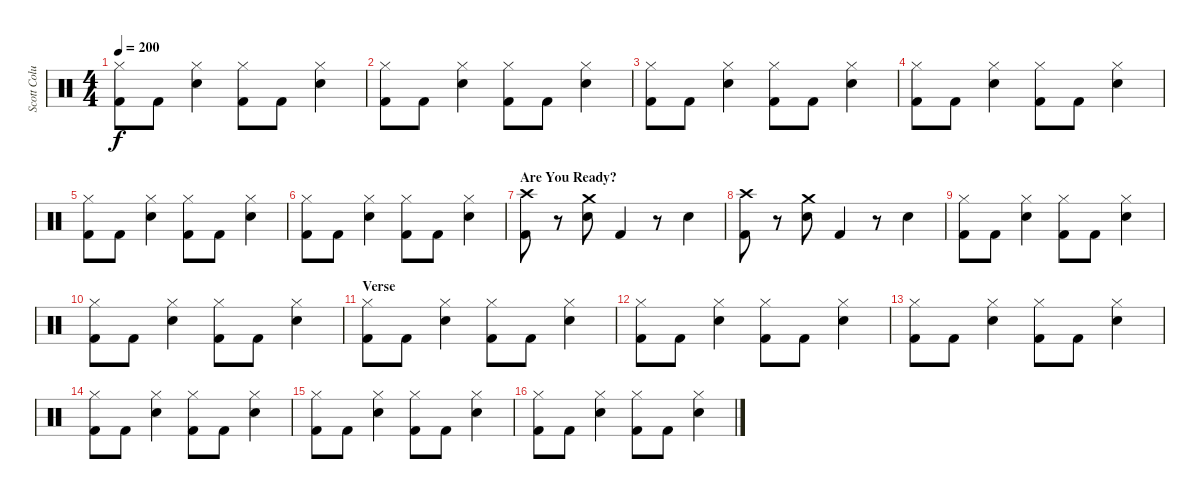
\track ("Scott Columbus" "Scott Colu") {instrument percussion}
\staff {score}
\articulation defaults
\ts (4 4)
\tempo 200
\clef neutral
\ks c
("Hi-Hat (closed)" "Kick (hit) 2").8{dy f} "Kick (hit) 2".8 ("Hi-Hat (closed)" "Snare (hit) 2").4 ("Hi-Hat (closed)" "Kick (hit) 2").8 "Kick (hit) 2".8 ("Hi-Hat (closed)" "Snare (hit) 2").4 |
("Hi-Hat (closed)" "Kick (hit) 2").8 "Kick (hit) 2".8 ("Hi-Hat (closed)" "Snare (hit) 2").4 ("Hi-Hat (closed)" "Kick (hit) 2").8 "Kick (hit) 2".8 ("Hi-Hat (closed)" "Snare (hit) 2").4 |
("Hi-Hat (closed)" "Kick (hit) 2").8 "Kick (hit) 2".8 ("Hi-Hat (closed)" "Snare (hit) 2").4 ("Hi-Hat (closed)" "Kick (hit) 2").8 "Kick (hit) 2".8 ("Hi-Hat (closed)" "Snare (hit) 2").4 |
("Hi-Hat (closed)" "Kick (hit) 2").8 "Kick (hit) 2".8 ("Hi-Hat (closed)" "Snare (hit) 2").4 ("Hi-Hat (closed)" "Kick (hit) 2").8 "Kick (hit) 2".8 ("Hi-Hat (closed)" "Snare (hit) 2").4 |
("Hi-Hat (closed)" "Kick (hit) 2").8 "Kick (hit) 2".8 ("Hi-Hat (closed)" "Snare (hit) 2").4 ("Hi-Hat (closed)" "Kick (hit) 2").8 "Kick (hit) 2".8 ("Hi-Hat (closed)" "Snare (hit) 2").4 |
("Hi-Hat (closed)" "Kick (hit) 2").8 "Kick (hit) 2".8 ("Hi-Hat (closed)" "Snare (hit) 2").4 ("Hi-Hat (closed)" "Kick (hit) 2").8 "Kick (hit) 2".8 ("Hi-Hat (closed)" "Snare (hit) 2").4 |
\section ("" "Are You Ready?")
("Crash high (hit)" "Kick (hit) 2").8 r.8 ("Crash medium (hit)" "Snare (hit) 2").8 "Kick (hit) 2".4 r.8 "Snare (hit) 2".4 |
("Crash high (hit)" "Kick (hit) 2").8 r.8 ("Crash medium (hit)" "Snare (hit) 2").8 "Kick (hit) 2".4 r.8 "Snare (hit) 2".4 |
("Hi-Hat (closed)" "Kick (hit) 2").8 "Kick (hit) 2".8 ("Hi-Hat (closed)" "Snare (hit) 2").4 ("Hi-Hat (closed)" "Kick (hit) 2").8 "Kick (hit) 2".8 ("Hi-Hat (closed)" "Snare (hit) 2").4 |
("Hi-Hat (closed)" "Kick (hit) 2").8 "Kick (hit) 2".8 ("Hi-Hat (closed)" "Snare (hit) 2").4 ("Hi-Hat (closed)" "Kick (hit) 2").8 "Kick (hit) 2".8 ("Hi-Hat (closed)" "Snare (hit) 2").4 |
\section ("" "Verse")
("Hi-Hat (closed)" "Kick (hit) 2").8 "Kick (hit) 2".8 ("Hi-Hat (closed)" "Snare (hit) 2").4 ("Hi-Hat (closed)" "Kick (hit) 2").8 "Kick (hit) 2".8 ("Hi-Hat (closed)" "Snare (hit) 2").4 |
("Hi-Hat (closed)" "Kick (hit) 2").8 "Kick (hit) 2".8 ("Hi-Hat (closed)" "Snare (hit) 2").4 ("Hi-Hat (closed)" "Kick (hit) 2").8 "Kick (hit) 2".8 ("Hi-Hat (closed)" "Snare (hit) 2").4 |
("Hi-Hat (closed)" "Kick (hit) 2").8 "Kick (hit) 2".8 ("Hi-Hat (closed)" "Snare (hit) 2").4 ("Hi-Hat (closed)" "Kick (hit) 2").8 "Kick (hit) 2".8 ("Hi-Hat (closed)" "Snare (hit) 2").4 |
("Hi-Hat (closed)" "Kick (hit) 2").8 "Kick (hit) 2".8 ("Hi-Hat (closed)" "Snare (hit) 2").4 ("Hi-Hat (closed)" "Kick (hit) 2").8 "Kick (hit) 2".8 ("Hi-Hat (closed)" "Snare (hit) 2").4 |
("Hi-Hat (closed)" "Kick (hit) 2").8 "Kick (hit) 2".8 ("Hi-Hat (closed)" "Snare (hit) 2").4 ("Hi-Hat (closed)" "Kick (hit) 2").8 "Kick (hit) 2".8 ("Hi-Hat (closed)" "Snare (hit) 2").4 |
("Hi-Hat (closed)" "Kick (hit) 2").8 "Kick (hit) 2".8 ("Hi-Hat (closed)" "Snare (hit) 2").4 ("Hi-Hat (closed)" "Kick (hit) 2").8 "Kick (hit) 2".8 ("Hi-Hat (closed)" "Snare (hit) 2").4
